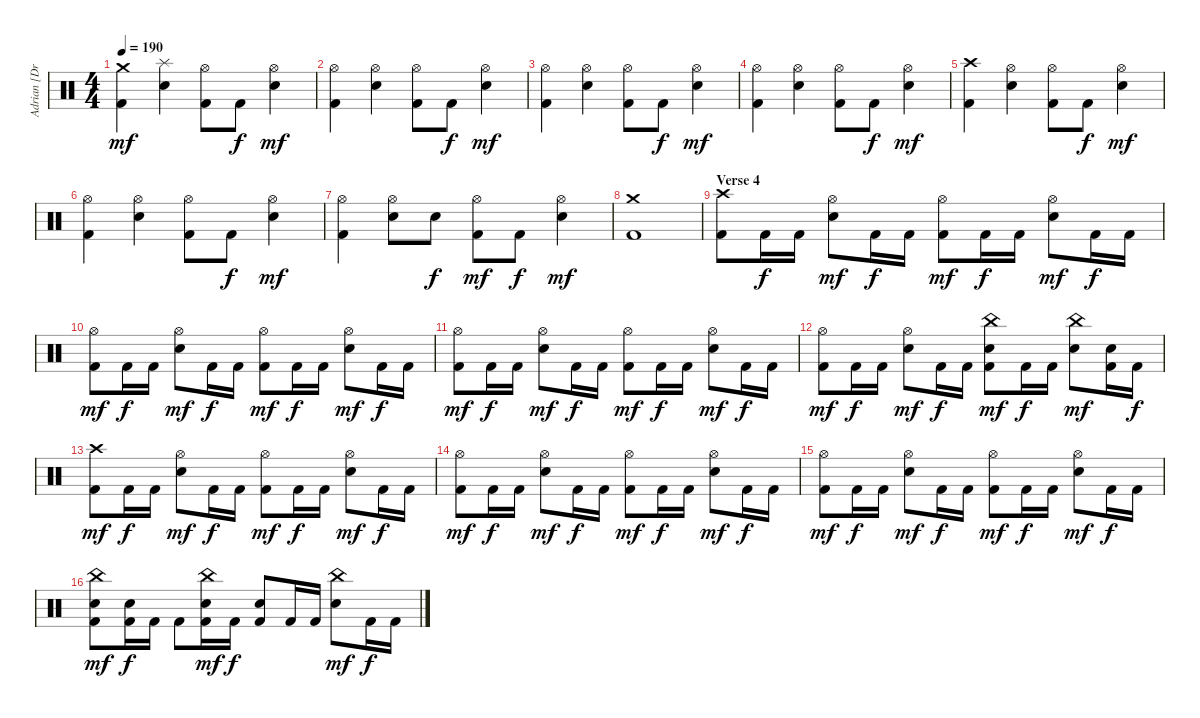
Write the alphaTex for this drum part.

\track ("Adrian [Drums]" "Adrian [Dr") {instrument percussion}
\staff {score}
\articulation defaults
\ts (4 4)
\tempo 190
\clef neutral
\ks c
("Crash medium (hit)" "Kick (hit) 2").4{dy mf} ("Splash (hit)" "Electric Snare (hit)").4 ("Hi-Hat (open)" "Kick (hit) 2").8 "Kick (hit) 2".8{dy f} ("Hi-Hat (open)" "Electric Snare (hit)").4{dy mf} |
("Hi-Hat (open)" "Kick (hit) 2").4 ("Hi-Hat (open)" "Electric Snare (hit)").4 ("Hi-Hat (open)" "Kick (hit) 2").8 "Kick (hit) 2".8{dy f} ("Hi-Hat (open)" "Electric Snare (hit)").4{dy mf} |
("Hi-Hat (open)" "Kick (hit) 2").4 ("Hi-Hat (open)" "Electric Snare (hit)").4 ("Hi-Hat (open)" "Kick (hit) 2").8 "Kick (hit) 2".8{dy f} ("Hi-Hat (open)" "Electric Snare (hit)").4{dy mf} |
("Hi-Hat (open)" "Kick (hit) 2").4 ("Hi-Hat (open)" "Electric Snare (hit)").4 ("Hi-Hat (open)" "Kick (hit) 2").8 "Kick (hit) 2".8{dy f} ("Hi-Hat (open)" "Electric Snare (hit)").4{dy mf} |
("Crash high (hit)" "Kick (hit) 2").4 ("Hi-Hat (open)" "Electric Snare (hit)").4 ("Hi-Hat (open)" "Kick (hit) 2").8 "Kick (hit) 2".8{dy f} ("Hi-Hat (open)" "Electric Snare (hit)").4{dy mf} |
("Hi-Hat (open)" "Kick (hit) 2").4 ("Hi-Hat (open)" "Electric Snare (hit)").4 ("Hi-Hat (open)" "Kick (hit) 2").8 "Kick (hit) 2".8{dy f} ("Hi-Hat (open)" "Electric Snare (hit)").4{dy mf} |
("Hi-Hat (open)" "Kick (hit) 2").4 ("Hi-Hat (open)" "Electric Snare (hit)").8 "Electric Snare (hit)".8{dy f} ("Hi-Hat (open)" "Kick (hit) 2").8{dy mf} "Kick (hit) 2".8{dy f} ("Hi-Hat (open)" "Electric Snare (hit)").4{dy mf} |
("Crash medium (hit)" "Kick (hit) 2").1 |
\section ("" "Verse 4")
("Crash high (hit)" "Kick (hit) 2").8 "Kick (hit) 2".16{dy f} "Kick (hit) 2".16 ("Hi-Hat (open)" "Electric Snare (hit)").8{dy mf} "Kick (hit) 2".16{dy f} "Kick (hit) 2".16 ("Hi-Hat (open)" "Kick (hit) 2").8{dy mf} "Kick (hit) 2".16{dy f} "Kick (hit) 2".16 ("Hi-Hat (open)" "Electric Snare (hit)").8{dy mf} "Kick (hit) 2".16{dy f} "Kick (hit) 2".16 |
("Hi-Hat (open)" "Kick (hit) 2").8{dy mf} "Kick (hit) 2".16{dy f} "Kick (hit) 2".16 ("Hi-Hat (open)" "Electric Snare (hit)").8{dy mf} "Kick (hit) 2".16{dy f} "Kick (hit) 2".16 ("Hi-Hat (open)" "Kick (hit) 2").8{dy mf} "Kick (hit) 2".16{dy f} "Kick (hit) 2".16 ("Hi-Hat (open)" "Electric Snare (hit)").8{dy mf} "Kick (hit) 2".16{dy f} "Kick (hit) 2".16 |
("Hi-Hat (open)" "Kick (hit) 2").8{dy mf} "Kick (hit) 2".16{dy f} "Kick (hit) 2".16 ("Hi-Hat (open)" "Electric Snare (hit)").8{dy mf} "Kick (hit) 2".16{dy f} "Kick (hit) 2".16 ("Hi-Hat (open)" "Kick (hit) 2").8{dy mf} "Kick (hit) 2".16{dy f} "Kick (hit) 2".16 ("Hi-Hat (open)" "Electric Snare (hit)").8{dy mf} "Kick (hit) 2".16{dy f} "Kick (hit) 2".16 |
("Hi-Hat (open)" "Kick (hit) 2").8{dy mf} "Kick (hit) 2".16{dy f} "Kick (hit) 2".16 ("Hi-Hat (open)" "Electric Snare (hit)").8{dy mf} "Kick (hit) 2".16{dy f} "Kick (hit) 2".16 ("China (hit)" "Electric Snare (hit)" "Kick (hit) 2").8{dy mf} "Kick (hit) 2".16{dy f} "Kick (hit) 2".16 ("China (hit)" "Electric Snare (hit)").8{dy mf} ("Electric Snare (hit)" "Kick (hit) 2").16 "Kick (hit) 2".16{dy f} |
("Crash high (hit)" "Kick (hit) 2").8{dy mf} "Kick (hit) 2".16{dy f} "Kick (hit) 2".16 ("Hi-Hat (open)" "Electric Snare (hit)").8{dy mf} "Kick (hit) 2".16{dy f} "Kick (hit) 2".16 ("Hi-Hat (open)" "Kick (hit) 2").8{dy mf} "Kick (hit) 2".16{dy f} "Kick (hit) 2".16 ("Hi-Hat (open)" "Electric Snare (hit)").8{dy mf} "Kick (hit) 2".16{dy f} "Kick (hit) 2".16 |
("Hi-Hat (open)" "Kick (hit) 2").8{dy mf} "Kick (hit) 2".16{dy f} "Kick (hit) 2".16 ("Hi-Hat (open)" "Electric Snare (hit)").8{dy mf} "Kick (hit) 2".16{dy f} "Kick (hit) 2".16 ("Hi-Hat (open)" "Kick (hit) 2").8{dy mf} "Kick (hit) 2".16{dy f} "Kick (hit) 2".16 ("Hi-Hat (open)" "Electric Snare (hit)").8{dy mf} "Kick (hit) 2".16{dy f} "Kick (hit) 2".16 |
("Hi-Hat (open)" "Kick (hit) 2").8{dy mf} "Kick (hit) 2".16{dy f} "Kick (hit) 2".16 ("Hi-Hat (open)" "Electric Snare (hit)").8{dy mf} "Kick (hit) 2".16{dy f} "Kick (hit) 2".16 ("Hi-Hat (open)" "Kick (hit) 2").8{dy mf} "Kick (hit) 2".16{dy f} "Kick (hit) 2".16 ("Hi-Hat (open)" "Electric Snare (hit)").8{dy mf} "Kick (hit) 2".16{dy f} "Kick (hit) 2".16 |
("China (hit)" "Electric Snare (hit)" "Kick (hit) 2").8{dy mf} ("Electric Snare (hit)" "Kick (hit) 2").16{dy f} "Kick (hit) 2".16 "Kick (hit) 2".8 ("China (hit)" "Electric Snare (hit)" "Kick (hit) 2").16{dy mf} "Kick (hit) 2".16{dy f} ("Electric Snare (hit)" "Kick (hit) 2").8 "Kick (hit) 2".16 "Kick (hit) 2".16 ("China (hit)" "Electric Snare (hit)").8{dy mf} "Kick (hit) 2".16{dy f} "Kick (hit) 2".16
